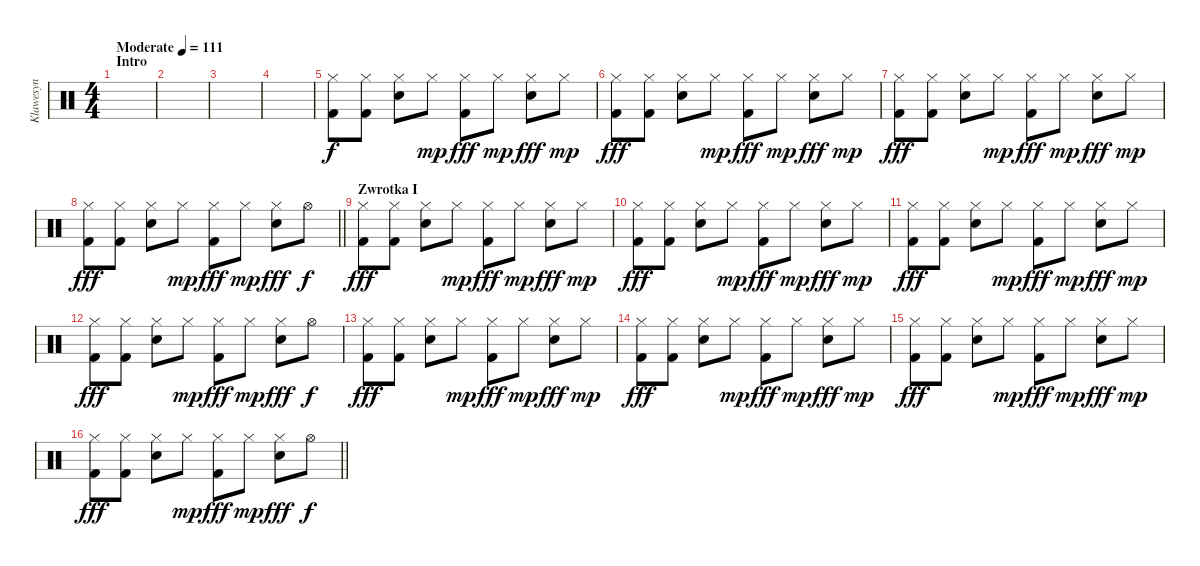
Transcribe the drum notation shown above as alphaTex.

\track ("Klawesyn" "Klawesyn") {instrument percussion}
\staff {score}
\articulation defaults
\ts (4 4)
\section ("" "Intro")
\tempo (111 "Moderate")
\clef neutral
\ks c
|
|
|
|
("Hi-Hat (closed)" "Kick (hit) 2").8 ("Hi-Hat (closed)" "Kick (hit) 2").8 ("Hi-Hat (closed)" "Snare (hit) 2").8 "Hi-Hat (closed)".8{dy mp} ("Hi-Hat (closed)" "Kick (hit) 2").8{dy fff} "Hi-Hat (closed)".8{dy mp} ("Hi-Hat (closed)" "Snare (hit) 2").8{dy fff} "Hi-Hat (closed)".8{dy mp} |
("Hi-Hat (closed)" "Kick (hit) 2").8{dy fff} ("Hi-Hat (closed)" "Kick (hit) 2").8 ("Hi-Hat (closed)" "Snare (hit) 2").8 "Hi-Hat (closed)".8{dy mp} ("Hi-Hat (closed)" "Kick (hit) 2").8{dy fff} "Hi-Hat (closed)".8{dy mp} ("Hi-Hat (closed)" "Snare (hit) 2").8{dy fff} "Hi-Hat (closed)".8{dy mp} |
("Hi-Hat (closed)" "Kick (hit) 2").8{dy fff} ("Hi-Hat (closed)" "Kick (hit) 2").8 ("Hi-Hat (closed)" "Snare (hit) 2").8 "Hi-Hat (closed)".8{dy mp} ("Hi-Hat (closed)" "Kick (hit) 2").8{dy fff} "Hi-Hat (closed)".8{dy mp} ("Hi-Hat (closed)" "Snare (hit) 2").8{dy fff} "Hi-Hat (closed)".8{dy mp} |
\barLineRight lightlight
("Hi-Hat (closed)" "Kick (hit) 2").8{dy fff} ("Hi-Hat (closed)" "Kick (hit) 2").8 ("Hi-Hat (closed)" "Snare (hit) 2").8 "Hi-Hat (closed)".8{dy mp} ("Hi-Hat (closed)" "Kick (hit) 2").8{dy fff} "Hi-Hat (closed)".8{dy mp} ("Hi-Hat (closed)" "Snare (hit) 2").8{dy fff} "Hi-Hat (open)".8{dy f} |
\section ("" "Zwrotka I")
("Hi-Hat (closed)" "Kick (hit) 2").8{dy fff} ("Hi-Hat (closed)" "Kick (hit) 2").8 ("Hi-Hat (closed)" "Snare (hit) 2").8 "Hi-Hat (closed)".8{dy mp} ("Hi-Hat (closed)" "Kick (hit) 2").8{dy fff} "Hi-Hat (closed)".8{dy mp} ("Hi-Hat (closed)" "Snare (hit) 2").8{dy fff} "Hi-Hat (closed)".8{dy mp} |
("Hi-Hat (closed)" "Kick (hit) 2").8{dy fff} ("Hi-Hat (closed)" "Kick (hit) 2").8 ("Hi-Hat (closed)" "Snare (hit) 2").8 "Hi-Hat (closed)".8{dy mp} ("Hi-Hat (closed)" "Kick (hit) 2").8{dy fff} "Hi-Hat (closed)".8{dy mp} ("Hi-Hat (closed)" "Snare (hit) 2").8{dy fff} "Hi-Hat (closed)".8{dy mp} |
("Hi-Hat (closed)" "Kick (hit) 2").8{dy fff} ("Hi-Hat (closed)" "Kick (hit) 2").8 ("Hi-Hat (closed)" "Snare (hit) 2").8 "Hi-Hat (closed)".8{dy mp} ("Hi-Hat (closed)" "Kick (hit) 2").8{dy fff} "Hi-Hat (closed)".8{dy mp} ("Hi-Hat (closed)" "Snare (hit) 2").8{dy fff} "Hi-Hat (closed)".8{dy mp} |
("Hi-Hat (closed)" "Kick (hit) 2").8{dy fff} ("Hi-Hat (closed)" "Kick (hit) 2").8 ("Hi-Hat (closed)" "Snare (hit) 2").8 "Hi-Hat (closed)".8{dy mp} ("Hi-Hat (closed)" "Kick (hit) 2").8{dy fff} "Hi-Hat (closed)".8{dy mp} ("Hi-Hat (closed)" "Snare (hit) 2").8{dy fff} "Hi-Hat (open)".8{dy f} |
("Hi-Hat (closed)" "Kick (hit) 2").8{dy fff} ("Hi-Hat (closed)" "Kick (hit) 2").8 ("Hi-Hat (closed)" "Snare (hit) 2").8 "Hi-Hat (closed)".8{dy mp} ("Hi-Hat (closed)" "Kick (hit) 2").8{dy fff} "Hi-Hat (closed)".8{dy mp} ("Hi-Hat (closed)" "Snare (hit) 2").8{dy fff} "Hi-Hat (closed)".8{dy mp} |
("Hi-Hat (closed)" "Kick (hit) 2").8{dy fff} ("Hi-Hat (closed)" "Kick (hit) 2").8 ("Hi-Hat (closed)" "Snare (hit) 2").8 "Hi-Hat (closed)".8{dy mp} ("Hi-Hat (closed)" "Kick (hit) 2").8{dy fff} "Hi-Hat (closed)".8{dy mp} ("Hi-Hat (closed)" "Snare (hit) 2").8{dy fff} "Hi-Hat (closed)".8{dy mp} |
("Hi-Hat (closed)" "Kick (hit) 2").8{dy fff} ("Hi-Hat (closed)" "Kick (hit) 2").8 ("Hi-Hat (closed)" "Snare (hit) 2").8 "Hi-Hat (closed)".8{dy mp} ("Hi-Hat (closed)" "Kick (hit) 2").8{dy fff} "Hi-Hat (closed)".8{dy mp} ("Hi-Hat (closed)" "Snare (hit) 2").8{dy fff} "Hi-Hat (closed)".8{dy mp} |
\barLineRight lightlight
("Hi-Hat (closed)" "Kick (hit) 2").8{dy fff} ("Hi-Hat (closed)" "Kick (hit) 2").8 ("Hi-Hat (closed)" "Snare (hit) 2").8 "Hi-Hat (closed)".8{dy mp} ("Hi-Hat (closed)" "Kick (hit) 2").8{dy fff} "Hi-Hat (closed)".8{dy mp} ("Hi-Hat (closed)" "Snare (hit) 2").8{dy fff} "Hi-Hat (open)".8{dy f}
